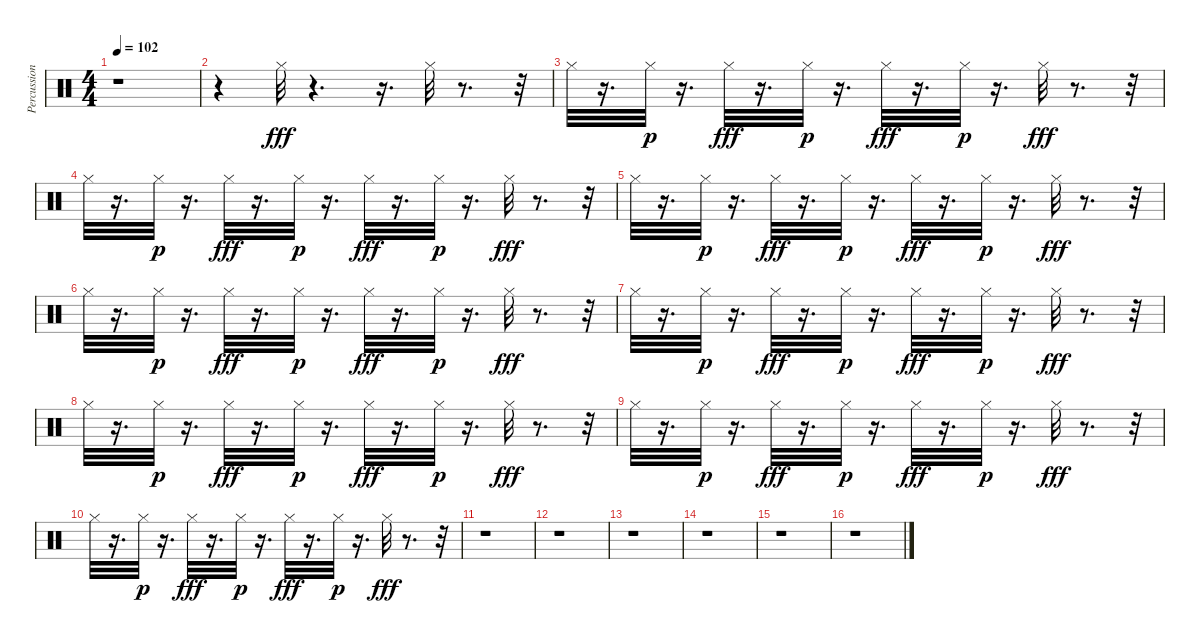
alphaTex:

\track ("Percussion" "Percussion") {instrument percussion}
\staff {score}
\articulation defaults
\ts (4 4)
\tempo 102
\clef neutral
\ks c
r.1{dy fff} |
r.4 "Hi-Hat (closed)".32 r.4{d} r.16{d} "Hi-Hat (closed)".32 r.8{d} r.32 |
"Hi-Hat (closed)".32 r.16{d} "Hi-Hat (closed)".32{dy p} r.16{d} "Hi-Hat (closed)".32{dy fff} r.16{d} "Hi-Hat (closed)".32{dy p} r.16{d} "Hi-Hat (closed)".32{dy fff} r.16{d} "Hi-Hat (closed)".32{dy p} r.16{d} "Hi-Hat (closed)".32{dy fff} r.8{d} r.32 |
"Hi-Hat (closed)".32 r.16{d} "Hi-Hat (closed)".32{dy p} r.16{d} "Hi-Hat (closed)".32{dy fff} r.16{d} "Hi-Hat (closed)".32{dy p} r.16{d} "Hi-Hat (closed)".32{dy fff} r.16{d} "Hi-Hat (closed)".32{dy p} r.16{d} "Hi-Hat (closed)".32{dy fff} r.8{d} r.32 |
"Hi-Hat (closed)".32 r.16{d} "Hi-Hat (closed)".32{dy p} r.16{d} "Hi-Hat (closed)".32{dy fff} r.16{d} "Hi-Hat (closed)".32{dy p} r.16{d} "Hi-Hat (closed)".32{dy fff} r.16{d} "Hi-Hat (closed)".32{dy p} r.16{d} "Hi-Hat (closed)".32{dy fff} r.8{d} r.32 |
"Hi-Hat (closed)".32 r.16{d} "Hi-Hat (closed)".32{dy p} r.16{d} "Hi-Hat (closed)".32{dy fff} r.16{d} "Hi-Hat (closed)".32{dy p} r.16{d} "Hi-Hat (closed)".32{dy fff} r.16{d} "Hi-Hat (closed)".32{dy p} r.16{d} "Hi-Hat (closed)".32{dy fff} r.8{d} r.32 |
"Hi-Hat (closed)".32 r.16{d} "Hi-Hat (closed)".32{dy p} r.16{d} "Hi-Hat (closed)".32{dy fff} r.16{d} "Hi-Hat (closed)".32{dy p} r.16{d} "Hi-Hat (closed)".32{dy fff} r.16{d} "Hi-Hat (closed)".32{dy p} r.16{d} "Hi-Hat (closed)".32{dy fff} r.8{d} r.32 |
"Hi-Hat (closed)".32 r.16{d} "Hi-Hat (closed)".32{dy p} r.16{d} "Hi-Hat (closed)".32{dy fff} r.16{d} "Hi-Hat (closed)".32{dy p} r.16{d} "Hi-Hat (closed)".32{dy fff} r.16{d} "Hi-Hat (closed)".32{dy p} r.16{d} "Hi-Hat (closed)".32{dy fff} r.8{d} r.32 |
"Hi-Hat (closed)".32 r.16{d} "Hi-Hat (closed)".32{dy p} r.16{d} "Hi-Hat (closed)".32{dy fff} r.16{d} "Hi-Hat (closed)".32{dy p} r.16{d} "Hi-Hat (closed)".32{dy fff} r.16{d} "Hi-Hat (closed)".32{dy p} r.16{d} "Hi-Hat (closed)".32{dy fff} r.8{d} r.32 |
"Hi-Hat (closed)".32 r.16{d} "Hi-Hat (closed)".32{dy p} r.16{d} "Hi-Hat (closed)".32{dy fff} r.16{d} "Hi-Hat (closed)".32{dy p} r.16{d} "Hi-Hat (closed)".32{dy fff} r.16{d} "Hi-Hat (closed)".32{dy p} r.16{d} "Hi-Hat (closed)".32{dy fff} r.8{d} r.32 |
r.1 |
r.1 |
r.1 |
r.1 |
r.1 |
r.1
